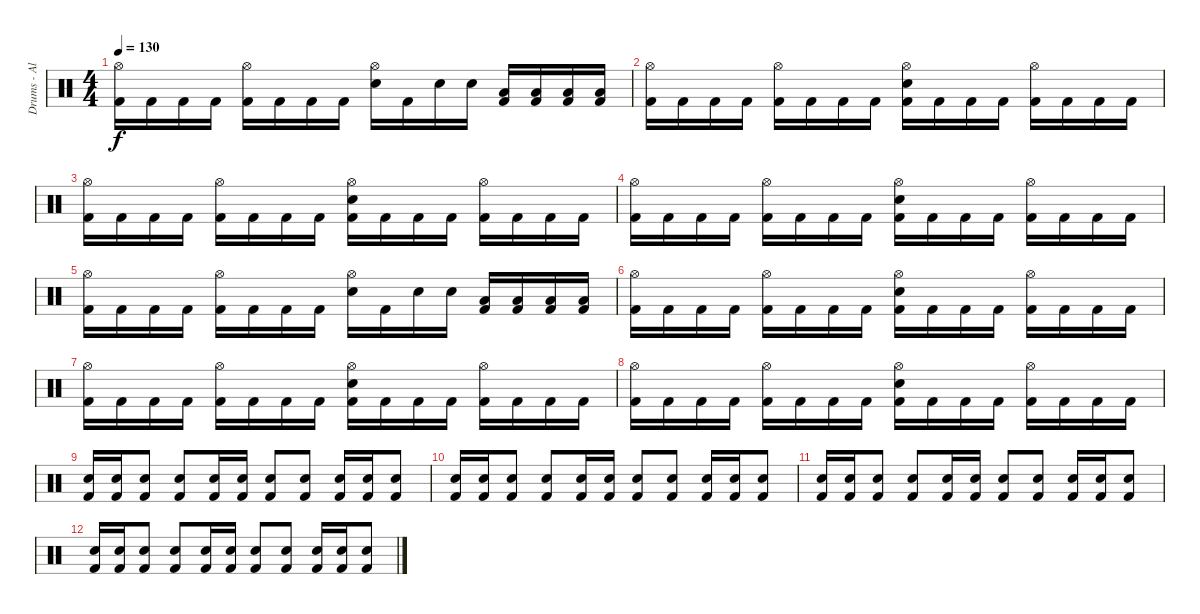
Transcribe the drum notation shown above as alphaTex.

\track ("Drums - Alex Wank" "Drums - Al") {instrument percussion}
\staff {score}
\articulation defaults
\ts (4 4)
\tempo 130
\clef neutral
\ks c
("Hi-Hat (open)" "Kick (hit) 2").16{dy f} "Kick (hit) 2".16 "Kick (hit) 2".16 "Kick (hit) 2".16 ("Hi-Hat (open)" "Kick (hit) 2").16 "Kick (hit) 2".16 "Kick (hit) 2".16 "Kick (hit) 2".16 ("Hi-Hat (open)" "Electric Snare (hit)").16 "Kick (hit) 2".16 "Electric Snare (hit)".16 "Electric Snare (hit)".16 ("Low Floor Tom (hit)" "Kick (hit) 2").16 ("Low Floor Tom (hit)" "Kick (hit) 2").16 ("Low Floor Tom (hit)" "Kick (hit) 2").16 ("Low Floor Tom (hit)" "Kick (hit) 2").16 |
("Hi-Hat (open)" "Kick (hit) 2").16 "Kick (hit) 2".16 "Kick (hit) 2".16 "Kick (hit) 2".16 ("Hi-Hat (open)" "Kick (hit) 2").16 "Kick (hit) 2".16 "Kick (hit) 2".16 "Kick (hit) 2".16 ("Hi-Hat (open)" "Electric Snare (hit)" "Kick (hit) 2").16 "Kick (hit) 2".16 "Kick (hit) 2".16 "Kick (hit) 2".16 ("Hi-Hat (open)" "Kick (hit) 2").16 "Kick (hit) 2".16 "Kick (hit) 2".16 "Kick (hit) 2".16 |
("Hi-Hat (open)" "Kick (hit) 2").16 "Kick (hit) 2".16 "Kick (hit) 2".16 "Kick (hit) 2".16 ("Hi-Hat (open)" "Kick (hit) 2").16 "Kick (hit) 2".16 "Kick (hit) 2".16 "Kick (hit) 2".16 ("Hi-Hat (open)" "Electric Snare (hit)" "Kick (hit) 2").16 "Kick (hit) 2".16 "Kick (hit) 2".16 "Kick (hit) 2".16 ("Hi-Hat (open)" "Kick (hit) 2").16 "Kick (hit) 2".16 "Kick (hit) 2".16 "Kick (hit) 2".16 |
("Hi-Hat (open)" "Kick (hit) 2").16 "Kick (hit) 2".16 "Kick (hit) 2".16 "Kick (hit) 2".16 ("Hi-Hat (open)" "Kick (hit) 2").16 "Kick (hit) 2".16 "Kick (hit) 2".16 "Kick (hit) 2".16 ("Hi-Hat (open)" "Electric Snare (hit)" "Kick (hit) 2").16 "Kick (hit) 2".16 "Kick (hit) 2".16 "Kick (hit) 2".16 ("Hi-Hat (open)" "Kick (hit) 2").16 "Kick (hit) 2".16 "Kick (hit) 2".16 "Kick (hit) 2".16 |
("Hi-Hat (open)" "Kick (hit) 2").16 "Kick (hit) 2".16 "Kick (hit) 2".16 "Kick (hit) 2".16 ("Hi-Hat (open)" "Kick (hit) 2").16 "Kick (hit) 2".16 "Kick (hit) 2".16 "Kick (hit) 2".16 ("Hi-Hat (open)" "Electric Snare (hit)").16 "Kick (hit) 2".16 "Electric Snare (hit)".16 "Electric Snare (hit)".16 ("Low Floor Tom (hit)" "Kick (hit) 2").16 ("Low Floor Tom (hit)" "Kick (hit) 2").16 ("Low Floor Tom (hit)" "Kick (hit) 2").16 ("Low Floor Tom (hit)" "Kick (hit) 2").16 |
("Hi-Hat (open)" "Kick (hit) 2").16 "Kick (hit) 2".16 "Kick (hit) 2".16 "Kick (hit) 2".16 ("Hi-Hat (open)" "Kick (hit) 2").16 "Kick (hit) 2".16 "Kick (hit) 2".16 "Kick (hit) 2".16 ("Hi-Hat (open)" "Electric Snare (hit)" "Kick (hit) 2").16 "Kick (hit) 2".16 "Kick (hit) 2".16 "Kick (hit) 2".16 ("Hi-Hat (open)" "Kick (hit) 2").16 "Kick (hit) 2".16 "Kick (hit) 2".16 "Kick (hit) 2".16 |
("Hi-Hat (open)" "Kick (hit) 2").16 "Kick (hit) 2".16 "Kick (hit) 2".16 "Kick (hit) 2".16 ("Hi-Hat (open)" "Kick (hit) 2").16 "Kick (hit) 2".16 "Kick (hit) 2".16 "Kick (hit) 2".16 ("Hi-Hat (open)" "Electric Snare (hit)" "Kick (hit) 2").16 "Kick (hit) 2".16 "Kick (hit) 2".16 "Kick (hit) 2".16 ("Hi-Hat (open)" "Kick (hit) 2").16 "Kick (hit) 2".16 "Kick (hit) 2".16 "Kick (hit) 2".16 |
("Hi-Hat (open)" "Kick (hit) 2").16 "Kick (hit) 2".16 "Kick (hit) 2".16 "Kick (hit) 2".16 ("Hi-Hat (open)" "Kick (hit) 2").16 "Kick (hit) 2".16 "Kick (hit) 2".16 "Kick (hit) 2".16 ("Hi-Hat (open)" "Electric Snare (hit)" "Kick (hit) 2").16 "Kick (hit) 2".16 "Kick (hit) 2".16 "Kick (hit) 2".16 ("Hi-Hat (open)" "Kick (hit) 2").16 "Kick (hit) 2".16 "Kick (hit) 2".16 "Kick (hit) 2".16 |
("Electric Snare (hit)" "Kick (hit) 2").16 ("Electric Snare (hit)" "Kick (hit) 2").16 ("Electric Snare (hit)" "Kick (hit) 2").8 ("Electric Snare (hit)" "Kick (hit) 2").8 ("Electric Snare (hit)" "Kick (hit) 2").16 ("Electric Snare (hit)" "Kick (hit) 2").16 ("Electric Snare (hit)" "Kick (hit) 2").8 ("Electric Snare (hit)" "Kick (hit) 2").8 ("Electric Snare (hit)" "Kick (hit) 2").16 ("Electric Snare (hit)" "Kick (hit) 2").16 ("Electric Snare (hit)" "Kick (hit) 2").8 |
("Electric Snare (hit)" "Kick (hit) 2").16 ("Electric Snare (hit)" "Kick (hit) 2").16 ("Electric Snare (hit)" "Kick (hit) 2").8 ("Electric Snare (hit)" "Kick (hit) 2").8 ("Electric Snare (hit)" "Kick (hit) 2").16 ("Electric Snare (hit)" "Kick (hit) 2").16 ("Electric Snare (hit)" "Kick (hit) 2").8 ("Electric Snare (hit)" "Kick (hit) 2").8 ("Electric Snare (hit)" "Kick (hit) 2").16 ("Electric Snare (hit)" "Kick (hit) 2").16 ("Electric Snare (hit)" "Kick (hit) 2").8 |
("Electric Snare (hit)" "Kick (hit) 2").16 ("Electric Snare (hit)" "Kick (hit) 2").16 ("Electric Snare (hit)" "Kick (hit) 2").8 ("Electric Snare (hit)" "Kick (hit) 2").8 ("Electric Snare (hit)" "Kick (hit) 2").16 ("Electric Snare (hit)" "Kick (hit) 2").16 ("Electric Snare (hit)" "Kick (hit) 2").8 ("Electric Snare (hit)" "Kick (hit) 2").8 ("Electric Snare (hit)" "Kick (hit) 2").16 ("Electric Snare (hit)" "Kick (hit) 2").16 ("Electric Snare (hit)" "Kick (hit) 2").8 |
("Electric Snare (hit)" "Kick (hit) 2").16 ("Electric Snare (hit)" "Kick (hit) 2").16 ("Electric Snare (hit)" "Kick (hit) 2").8 ("Electric Snare (hit)" "Kick (hit) 2").8 ("Electric Snare (hit)" "Kick (hit) 2").16 ("Electric Snare (hit)" "Kick (hit) 2").16 ("Electric Snare (hit)" "Kick (hit) 2").8 ("Electric Snare (hit)" "Kick (hit) 2").8 ("Electric Snare (hit)" "Kick (hit) 2").16 ("Electric Snare (hit)" "Kick (hit) 2").16 ("Electric Snare (hit)" "Kick (hit) 2").8
